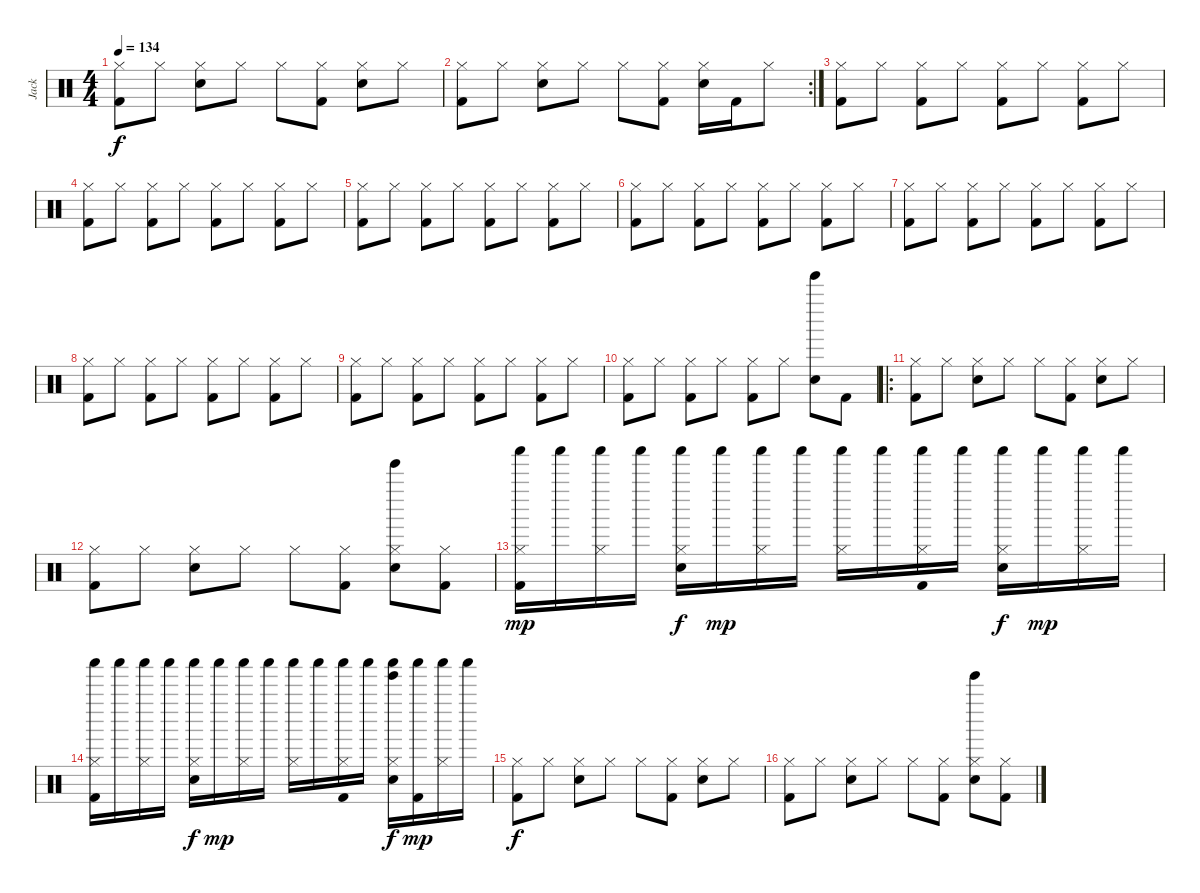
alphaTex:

\track ("Jack" "Jack") {instrument percussion}
\staff {score}
\articulation defaults
\ts (4 4)
\tempo 134
\clef neutral
\ks c
("Hi-Hat (closed)" "Kick (hit) 2").8{dy f} "Hi-Hat (closed)".8 ("Hi-Hat (closed)" "Electric Snare (hit)").8 "Hi-Hat (closed)".8 "Hi-Hat (closed)".8 ("Hi-Hat (closed)" "Kick (hit) 2").8 ("Hi-Hat (closed)" "Electric Snare (hit)").8 "Hi-Hat (closed)".8 |
\rc 2
("Hi-Hat (closed)" "Kick (hit) 2").8 "Hi-Hat (closed)".8 ("Hi-Hat (closed)" "Electric Snare (hit)").8 "Hi-Hat (closed)".8 "Hi-Hat (closed)".8 ("Hi-Hat (closed)" "Kick (hit) 2").8 ("Hi-Hat (closed)" "Electric Snare (hit)").16 "Kick (hit) 2".16 "Hi-Hat (closed)".8 |
("Hi-Hat (closed)" "Kick (hit) 2").8 "Hi-Hat (closed)".8 ("Hi-Hat (closed)" "Kick (hit) 2").8 "Hi-Hat (closed)".8 ("Hi-Hat (closed)" "Kick (hit) 2").8 "Hi-Hat (closed)".8 ("Hi-Hat (closed)" "Kick (hit) 2").8 "Hi-Hat (closed)".8 |
("Hi-Hat (closed)" "Kick (hit) 2").8 "Hi-Hat (closed)".8 ("Hi-Hat (closed)" "Kick (hit) 2").8 "Hi-Hat (closed)".8 ("Hi-Hat (closed)" "Kick (hit) 2").8 "Hi-Hat (closed)".8 ("Hi-Hat (closed)" "Kick (hit) 2").8 "Hi-Hat (closed)".8 |
("Hi-Hat (closed)" "Kick (hit) 2").8 "Hi-Hat (closed)".8 ("Hi-Hat (closed)" "Kick (hit) 2").8 "Hi-Hat (closed)".8 ("Hi-Hat (closed)" "Kick (hit) 2").8 "Hi-Hat (closed)".8 ("Hi-Hat (closed)" "Kick (hit) 2").8 "Hi-Hat (closed)".8 |
("Hi-Hat (closed)" "Kick (hit) 2").8 "Hi-Hat (closed)".8 ("Hi-Hat (closed)" "Kick (hit) 2").8 "Hi-Hat (closed)".8 ("Hi-Hat (closed)" "Kick (hit) 2").8 "Hi-Hat (closed)".8 ("Hi-Hat (closed)" "Kick (hit) 2").8 "Hi-Hat (closed)".8 |
("Hi-Hat (closed)" "Kick (hit) 2").8 "Hi-Hat (closed)".8 ("Hi-Hat (closed)" "Kick (hit) 2").8 "Hi-Hat (closed)".8 ("Hi-Hat (closed)" "Kick (hit) 2").8 "Hi-Hat (closed)".8 ("Hi-Hat (closed)" "Kick (hit) 2").8 "Hi-Hat (closed)".8 |
("Hi-Hat (closed)" "Kick (hit) 2").8 "Hi-Hat (closed)".8 ("Hi-Hat (closed)" "Kick (hit) 2").8 "Hi-Hat (closed)".8 ("Hi-Hat (closed)" "Kick (hit) 2").8 "Hi-Hat (closed)".8 ("Hi-Hat (closed)" "Kick (hit) 2").8 "Hi-Hat (closed)".8 |
("Hi-Hat (closed)" "Kick (hit) 2").8 "Hi-Hat (closed)".8 ("Hi-Hat (closed)" "Kick (hit) 2").8 "Hi-Hat (closed)".8 ("Hi-Hat (closed)" "Kick (hit) 2").8 "Hi-Hat (closed)".8 ("Hi-Hat (closed)" "Kick (hit) 2").8 "Hi-Hat (closed)".8 |
("Hi-Hat (closed)" "Kick (hit) 2").8 "Hi-Hat (closed)".8 ("Hi-Hat (closed)" "Kick (hit) 2").8 "Hi-Hat (closed)".8 ("Hi-Hat (closed)" "Kick (hit) 2").8 "Hi-Hat (closed)".8 ("Tinkle Bell (hit)" "Electric Snare (hit)").8 "Kick (hit) 2".8 |
\ro
("Hi-Hat (closed)" "Kick (hit) 2").8 "Hi-Hat (closed)".8 ("Hi-Hat (closed)" "Electric Snare (hit)").8 "Hi-Hat (closed)".8 "Hi-Hat (closed)".8 ("Hi-Hat (closed)" "Kick (hit) 2").8 ("Hi-Hat (closed)" "Electric Snare (hit)").8 "Hi-Hat (closed)".8 |
("Hi-Hat (closed)" "Kick (hit) 2").8 "Hi-Hat (closed)".8 ("Hi-Hat (closed)" "Electric Snare (hit)").8 "Hi-Hat (closed)".8 "Hi-Hat (closed)".8 ("Hi-Hat (closed)" "Kick (hit) 2").8 ("Hi-Hat (closed)" "Electric Snare (hit)" "Tinkle Bell (hit)").8 ("Hi-Hat (closed)" "Kick (hit) 2").8 |
("Shaker (hit)" "Hi-Hat (closed)" "Kick (hit) 2").16{dy mp} "Shaker (hit)".16 ("Shaker (hit)" "Hi-Hat (closed)").16 "Shaker (hit)".16 ("Shaker (hit)" "Hi-Hat (closed)" "Electric Snare (hit)").16{dy f} "Shaker (hit)".16{dy mp} ("Shaker (hit)" "Hi-Hat (closed)").16 "Shaker (hit)".16 ("Shaker (hit)" "Hi-Hat (closed)").16 "Shaker (hit)".16 ("Shaker (hit)" "Hi-Hat (closed)" "Kick (hit) 2").16 "Shaker (hit)".16 ("Shaker (hit)" "Hi-Hat (closed)" "Electric Snare (hit)").16{dy f} "Shaker (hit)".16{dy mp} ("Shaker (hit)" "Hi-Hat (closed)").16 "Shaker (hit)".16 |
("Shaker (hit)" "Hi-Hat (closed)" "Kick (hit) 2").16 "Shaker (hit)".16 ("Shaker (hit)" "Hi-Hat (closed)").16 "Shaker (hit)".16 ("Shaker (hit)" "Hi-Hat (closed)" "Electric Snare (hit)").16{dy f} "Shaker (hit)".16{dy mp} ("Shaker (hit)" "Hi-Hat (closed)").16 "Shaker (hit)".16 ("Shaker (hit)" "Hi-Hat (closed)").16 "Shaker (hit)".16 ("Shaker (hit)" "Hi-Hat (closed)" "Kick (hit) 2").16 "Shaker (hit)".16 ("Shaker (hit)" "Hi-Hat (closed)" "Electric Snare (hit)" "Tinkle Bell (hit)").16{dy f} ("Shaker (hit)" "Kick (hit) 2").16{dy mp} ("Shaker (hit)" "Hi-Hat (closed)").16 "Shaker (hit)".16 |
("Hi-Hat (closed)" "Kick (hit) 2").8{dy f} "Hi-Hat (closed)".8 ("Hi-Hat (closed)" "Electric Snare (hit)").8 "Hi-Hat (closed)".8 "Hi-Hat (closed)".8 ("Hi-Hat (closed)" "Kick (hit) 2").8 ("Hi-Hat (closed)" "Electric Snare (hit)").8 "Hi-Hat (closed)".8 |
("Hi-Hat (closed)" "Kick (hit) 2").8 "Hi-Hat (closed)".8 ("Hi-Hat (closed)" "Electric Snare (hit)").8 "Hi-Hat (closed)".8 "Hi-Hat (closed)".8 ("Hi-Hat (closed)" "Kick (hit) 2").8 ("Hi-Hat (closed)" "Electric Snare (hit)" "Tinkle Bell (hit)").8 ("Hi-Hat (closed)" "Kick (hit) 2").8
